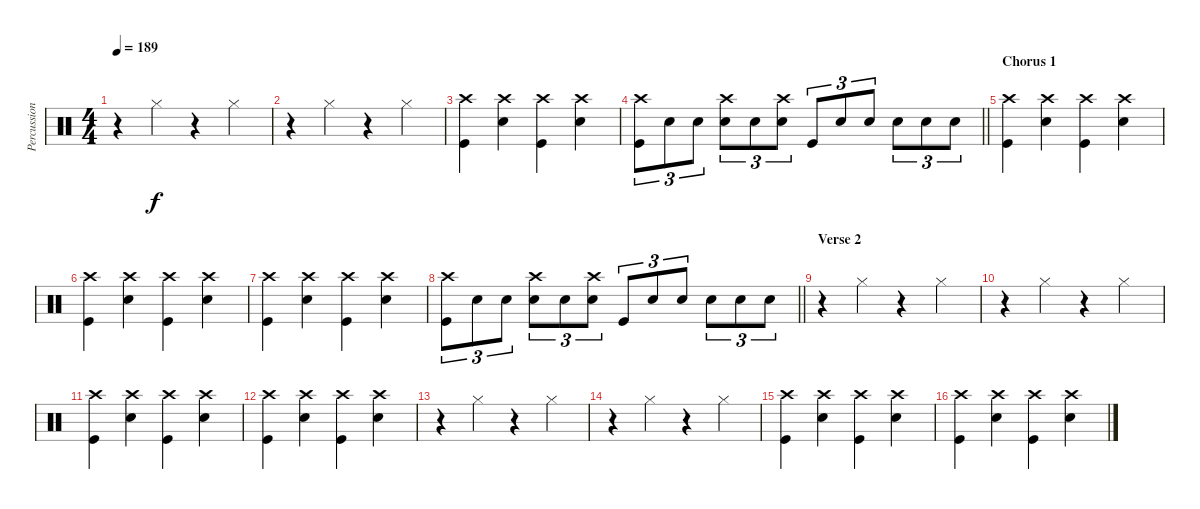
\track ("Percussions" "Percussion") {instrument percussion}
\staff {score}
\articulation defaults
\ts (4 4)
\tempo 189
\clef neutral
\ks c
r.4{dy f} "Hi-Hat (closed)".4 r.4 "Hi-Hat (closed)".4 |
r.4 "Hi-Hat (closed)".4 r.4 "Hi-Hat (closed)".4 |
("Crash high (hit)" "Kick (hit)").4 ("Crash high (hit)" "Snare (hit) 2").4 ("Crash high (hit)" "Kick (hit)").4 ("Crash high (hit)" "Snare (hit) 2").4 |
\barLineRight lightlight
("Crash high (hit)" "Kick (hit)").8{tu (3 2)} "Snare (hit) 2".8{tu (3 2)} "Snare (hit) 2".8{tu (3 2)} ("Crash high (hit)" "Snare (hit) 2").8{tu (3 2)} "Snare (hit) 2".8{tu (3 2)} ("Crash high (hit)" "Snare (hit) 2").8{tu (3 2)} "Kick (hit)".8{tu (3 2)} "Snare (hit) 2".8{tu (3 2)} "Snare (hit) 2".8{tu (3 2)} "Snare (hit) 2".8{tu (3 2)} "Snare (hit) 2".8{tu (3 2)} "Snare (hit) 2".8{tu (3 2)} |
\section ("" "Chorus 1")
("Crash high (hit)" "Kick (hit)").4 ("Crash high (hit)" "Snare (hit) 2").4 ("Crash high (hit)" "Kick (hit)").4 ("Crash high (hit)" "Snare (hit) 2").4 |
("Crash high (hit)" "Kick (hit)").4 ("Crash high (hit)" "Snare (hit) 2").4 ("Crash high (hit)" "Kick (hit)").4 ("Crash high (hit)" "Snare (hit) 2").4 |
("Crash high (hit)" "Kick (hit)").4 ("Crash high (hit)" "Snare (hit) 2").4 ("Crash high (hit)" "Kick (hit)").4 ("Crash high (hit)" "Snare (hit) 2").4 |
\barLineRight lightlight
("Crash high (hit)" "Kick (hit)").8{tu (3 2)} "Snare (hit) 2".8{tu (3 2)} "Snare (hit) 2".8{tu (3 2)} ("Crash high (hit)" "Snare (hit) 2").8{tu (3 2)} "Snare (hit) 2".8{tu (3 2)} ("Crash high (hit)" "Snare (hit) 2").8{tu (3 2)} "Kick (hit)".8{tu (3 2)} "Snare (hit) 2".8{tu (3 2)} "Snare (hit) 2".8{tu (3 2)} "Snare (hit) 2".8{tu (3 2)} "Snare (hit) 2".8{tu (3 2)} "Snare (hit) 2".8{tu (3 2)} |
\section ("" "Verse 2")
r.4 "Hi-Hat (closed)".4 r.4 "Hi-Hat (closed)".4 |
r.4 "Hi-Hat (closed)".4 r.4 "Hi-Hat (closed)".4 |
("Crash high (hit)" "Kick (hit)").4 ("Crash high (hit)" "Snare (hit) 2").4 ("Crash high (hit)" "Kick (hit)").4 ("Crash high (hit)" "Snare (hit) 2").4 |
("Crash high (hit)" "Kick (hit)").4 ("Crash high (hit)" "Snare (hit) 2").4 ("Crash high (hit)" "Kick (hit)").4 ("Crash high (hit)" "Snare (hit) 2").4 |
r.4 "Hi-Hat (closed)".4 r.4 "Hi-Hat (closed)".4 |
r.4 "Hi-Hat (closed)".4 r.4 "Hi-Hat (closed)".4 |
("Crash high (hit)" "Kick (hit)").4 ("Crash high (hit)" "Snare (hit) 2").4 ("Crash high (hit)" "Kick (hit)").4 ("Crash high (hit)" "Snare (hit) 2").4 |
("Crash high (hit)" "Kick (hit)").4 ("Crash high (hit)" "Snare (hit) 2").4 ("Crash high (hit)" "Kick (hit)").4 ("Crash high (hit)" "Snare (hit) 2").4
